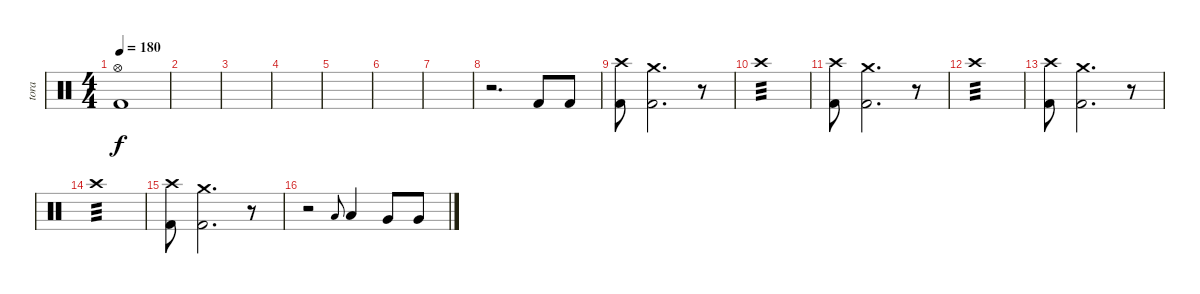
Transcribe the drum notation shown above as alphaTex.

\track ("tora" "tora") {instrument percussion}
\staff {score}
\articulation defaults
\ts (4 4)
\tempo 180
\clef neutral
\ks c
("Hi-Hat (open)" "Kick (hit) 2").1{dy f} |
|
|
|
|
|
|
r.2{d} "Kick (hit) 2".8 "Kick (hit) 2".8 |
("Crash high (hit)" "Kick (hit) 2").8 ("Crash medium (hit)" "Kick (hit) 2").2{d} r.8 |
"Crash high (hit)".1{tp 3} |
("Crash high (hit)" "Kick (hit) 2").8 ("Crash medium (hit)" "Kick (hit) 2").2{d} r.8 |
"Crash high (hit)".1{tp 3} |
("Crash high (hit)" "Kick (hit) 2").8 ("Crash medium (hit)" "Kick (hit) 2").2{d} r.8 |
"Crash high (hit)".1{tp 3} |
("Crash high (hit)" "Kick (hit) 2").8 ("Crash medium (hit)" "Kick (hit) 2").2{d} r.8 |
r.2 "Low Tom (hit)".8{gr onbeat} "Low Tom (hit)".4 "Very Low Tom (hit)".8 "Very Low Tom (hit)".8
